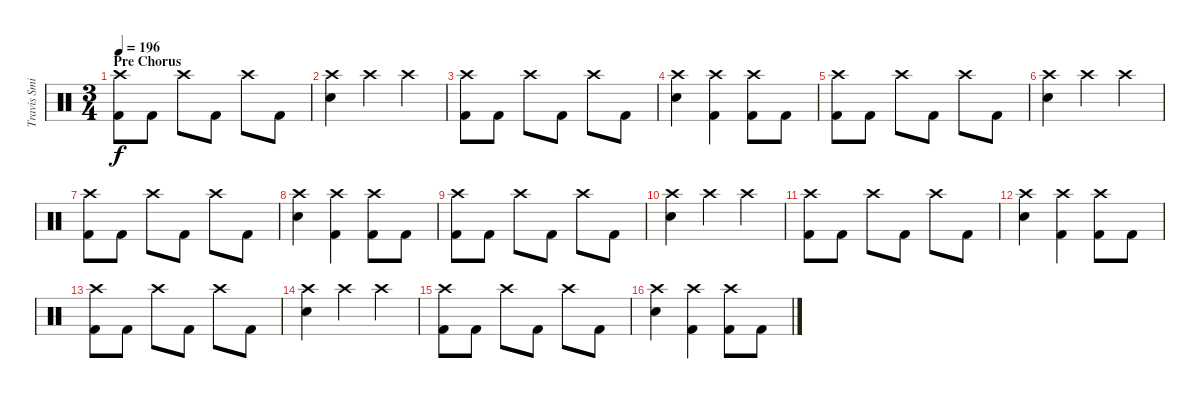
\track ("Travis Smith" "Travis Smi") {instrument percussion}
\staff {score}
\articulation defaults
\ts (3 4)
\section ("" "Pre Chorus")
\tempo 196
\clef neutral
\ks c
("Crash high (hit)" "Kick (hit) 2").8{dy f} "Kick (hit) 2".8 "Crash high (hit)".8 "Kick (hit) 2".8 "Crash high (hit)".8 "Kick (hit) 2".8 |
("Crash high (hit)" "Electric Snare (hit)").4 "Crash high (hit)".4 "Crash high (hit)".4 |
("Crash high (hit)" "Kick (hit) 2").8 "Kick (hit) 2".8 "Crash high (hit)".8 "Kick (hit) 2".8 "Crash high (hit)".8 "Kick (hit) 2".8 |
("Crash high (hit)" "Electric Snare (hit)").4 ("Crash high (hit)" "Kick (hit) 2").4 ("Crash high (hit)" "Kick (hit) 2").8 "Kick (hit) 2".8 |
("Crash high (hit)" "Kick (hit) 2").8 "Kick (hit) 2".8 "Crash high (hit)".8 "Kick (hit) 2".8 "Crash high (hit)".8 "Kick (hit) 2".8 |
("Crash high (hit)" "Electric Snare (hit)").4 "Crash high (hit)".4 "Crash high (hit)".4 |
("Crash high (hit)" "Kick (hit) 2").8 "Kick (hit) 2".8 "Crash high (hit)".8 "Kick (hit) 2".8 "Crash high (hit)".8 "Kick (hit) 2".8 |
("Crash high (hit)" "Electric Snare (hit)").4 ("Crash high (hit)" "Kick (hit) 2").4 ("Crash high (hit)" "Kick (hit) 2").8 "Kick (hit) 2".8 |
("Crash high (hit)" "Kick (hit) 2").8 "Kick (hit) 2".8 "Crash high (hit)".8 "Kick (hit) 2".8 "Crash high (hit)".8 "Kick (hit) 2".8 |
("Crash high (hit)" "Electric Snare (hit)").4 "Crash high (hit)".4 "Crash high (hit)".4 |
("Crash high (hit)" "Kick (hit) 2").8 "Kick (hit) 2".8 "Crash high (hit)".8 "Kick (hit) 2".8 "Crash high (hit)".8 "Kick (hit) 2".8 |
("Crash high (hit)" "Electric Snare (hit)").4 ("Crash high (hit)" "Kick (hit) 2").4 ("Crash high (hit)" "Kick (hit) 2").8 "Kick (hit) 2".8 |
("Crash high (hit)" "Kick (hit) 2").8 "Kick (hit) 2".8 "Crash high (hit)".8 "Kick (hit) 2".8 "Crash high (hit)".8 "Kick (hit) 2".8 |
("Crash high (hit)" "Electric Snare (hit)").4 "Crash high (hit)".4 "Crash high (hit)".4 |
("Crash high (hit)" "Kick (hit) 2").8 "Kick (hit) 2".8 "Crash high (hit)".8 "Kick (hit) 2".8 "Crash high (hit)".8 "Kick (hit) 2".8 |
("Crash high (hit)" "Electric Snare (hit)").4 ("Crash high (hit)" "Kick (hit) 2").4 ("Crash high (hit)" "Kick (hit) 2").8 "Kick (hit) 2".8
